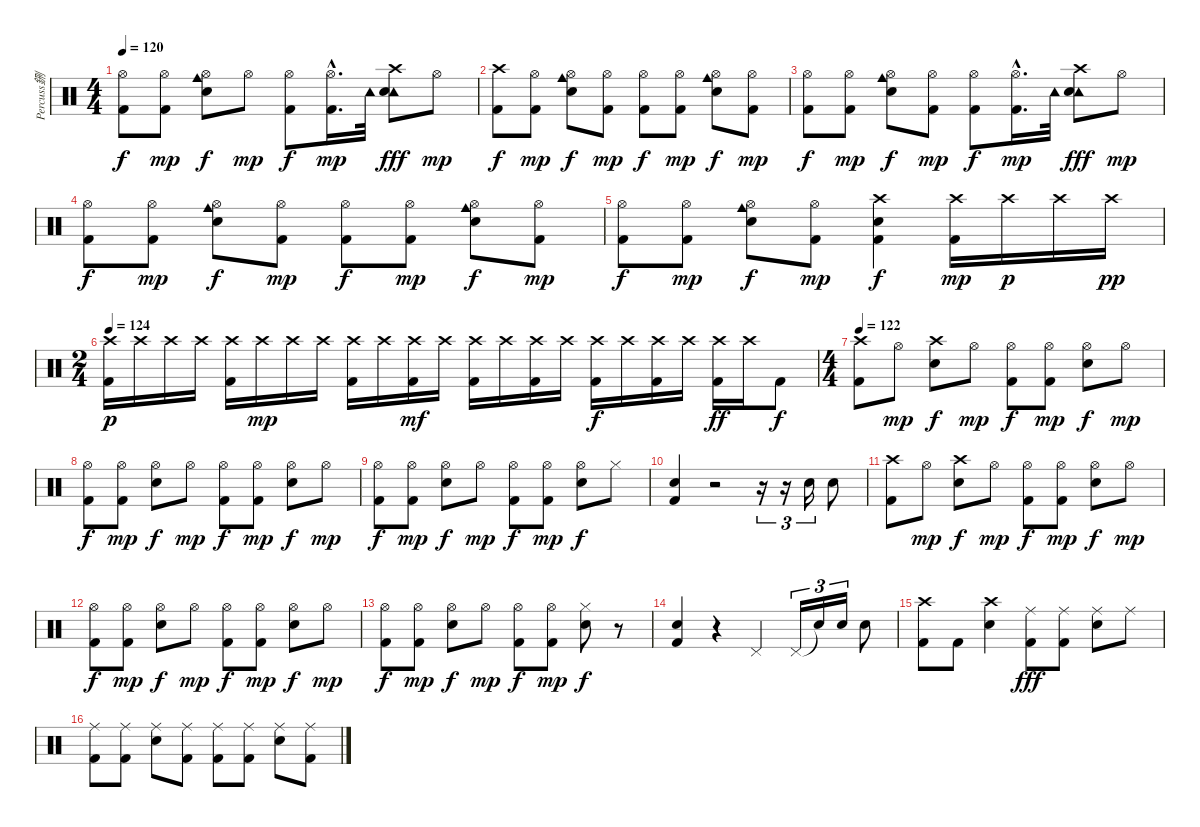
\track ("Percuss鉶" "Percuss鉶") {instrument percussion}
\staff {score}
\articulation defaults
\ts (4 4)
\tempo 120
\clef neutral
\ks c
("Hi-Hat (open)" "Kick (hit) 2").8{dy f} ("Hi-Hat (open)" "Kick (hit) 2").8{dy mp} ("Cowbell medium (hit)" "Hi-Hat (open)" "Snare (hit) 2").8{dy f} "Hi-Hat (open)".8{dy mp} ("Hi-Hat (open)" "Kick (hit) 2").8{dy f} ("Hi-Hat (open)"{hac} "Kick (hit) 2"{hac}).16{d dy mp} "Tambourine (hit)".32 ("Crash high (hit)" "Tambourine (hit)" "Snare (hit) 2").8{dy fff} "Hi-Hat (open)".8{dy mp} |
("Crash high (hit)" "Kick (hit) 2").8{dy f} ("Hi-Hat (open)" "Kick (hit) 2").8{dy mp} ("Cowbell medium (hit)" "Hi-Hat (open)" "Snare (hit) 2").8{dy f} ("Hi-Hat (open)" "Kick (hit) 2").8{dy mp} ("Hi-Hat (open)" "Kick (hit) 2").8{dy f} ("Hi-Hat (open)" "Kick (hit) 2").8{dy mp} ("Cowbell medium (hit)" "Hi-Hat (open)" "Snare (hit) 2").8{dy f} ("Hi-Hat (open)" "Kick (hit) 2").8{dy mp} |
("Hi-Hat (open)" "Kick (hit) 2").8{dy f} ("Hi-Hat (open)" "Kick (hit) 2").8{dy mp} ("Cowbell medium (hit)" "Hi-Hat (open)" "Snare (hit) 2").8{dy f} ("Hi-Hat (open)" "Kick (hit) 2").8{dy mp} ("Hi-Hat (open)" "Kick (hit) 2").8{dy f} ("Hi-Hat (open)"{hac} "Kick (hit) 2"{hac}).16{d dy mp} "Tambourine (hit)".32 ("Crash high (hit)" "Tambourine (hit)" "Snare (hit) 2").8{dy fff} "Hi-Hat (open)".8{dy mp} |
("Hi-Hat (open)" "Kick (hit) 2").8{dy f} ("Hi-Hat (open)" "Kick (hit) 2").8{dy mp} ("Cowbell medium (hit)" "Hi-Hat (open)" "Snare (hit) 2").8{dy f} ("Hi-Hat (open)" "Kick (hit) 2").8{dy mp} ("Hi-Hat (open)" "Kick (hit) 2").8{dy f} ("Hi-Hat (open)" "Kick (hit) 2").8{dy mp} ("Cowbell medium (hit)" "Hi-Hat (open)" "Snare (hit) 2").8{dy f} ("Hi-Hat (open)" "Kick (hit) 2").8{dy mp} |
("Hi-Hat (open)" "Kick (hit) 2").8{dy f} ("Hi-Hat (open)" "Kick (hit) 2").8{dy mp} ("Cowbell medium (hit)" "Hi-Hat (open)" "Snare (hit) 2").8{dy f} ("Hi-Hat (open)" "Kick (hit) 2").8{dy mp} ("Crash high (hit)" "Snare (hit) 2" "Kick (hit) 2").4{dy f} ("Crash high (hit)" "Kick (hit) 2").16{dy mp} "Crash high (hit)".16{dy p} "Crash high (hit)".16 "Crash high (hit)".16{dy pp} |
\ts (2 4)
\tempo 124
("Crash high (hit)" "Kick (hit) 2").16{dy p} "Crash high (hit)".16 "Crash high (hit)".16 "Crash high (hit)".16 ("Crash high (hit)" "Kick (hit) 2").16 "Crash high (hit)".16{dy mp} "Crash high (hit)".16 "Crash high (hit)".16 ("Crash high (hit)" "Kick (hit) 2").16 "Crash high (hit)".16 ("Crash high (hit)" "Kick (hit) 2").16{dy mf} "Crash high (hit)".16 ("Crash high (hit)" "Kick (hit) 2").16 "Crash high (hit)".16 ("Crash high (hit)" "Kick (hit) 2").16 "Crash high (hit)".16 ("Crash high (hit)" "Kick (hit) 2").16{dy f} "Crash high (hit)".16 ("Crash high (hit)" "Kick (hit) 2").16 "Crash high (hit)".16 ("Crash high (hit)" "Kick (hit) 2").16{dy ff} "Crash high (hit)".16 "Kick (hit) 2".8{dy f} |
\ts (4 4)
\tempo 122
("Crash high (hit)" "Kick (hit) 2").8 "Hi-Hat (open)".8{dy mp} ("Crash high (hit)" "Snare (hit) 2").8{dy f} "Hi-Hat (open)".8{dy mp} ("Hi-Hat (open)" "Kick (hit) 2").8{dy f} ("Hi-Hat (open)" "Kick (hit) 2").8{dy mp} ("Hi-Hat (open)" "Snare (hit) 2").8{dy f} "Hi-Hat (open)".8{dy mp} |
("Hi-Hat (open)" "Kick (hit) 2").8{dy f} ("Hi-Hat (open)" "Kick (hit) 2").8{dy mp} ("Hi-Hat (open)" "Snare (hit) 2").8{dy f} "Hi-Hat (open)".8{dy mp} ("Hi-Hat (open)" "Kick (hit) 2").8{dy f} ("Hi-Hat (open)" "Kick (hit) 2").8{dy mp} ("Hi-Hat (open)" "Snare (hit) 2").8{dy f} "Hi-Hat (open)".8{dy mp} |
("Hi-Hat (open)" "Kick (hit) 2").8{dy f} ("Hi-Hat (open)" "Kick (hit) 2").8{dy mp} ("Hi-Hat (open)" "Snare (hit) 2").8{dy f} "Hi-Hat (open)".8{dy mp} ("Hi-Hat (open)" "Kick (hit) 2").8{dy f} ("Hi-Hat (open)" "Kick (hit) 2").8{dy mp} ("Hi-Hat (open)" "Snare (hit) 2").8{dy f} "Hi-Hat (closed)".8 |
("Snare (hit) 2" "Kick (hit) 2").4 r.2 r.16{tu (3 2)} r.16{tu (3 2)} "Snare (hit) 2".16{tu (3 2)} "Snare (hit) 2".8 |
("Crash high (hit)" "Kick (hit) 2").8 "Hi-Hat (open)".8{dy mp} ("Crash high (hit)" "Snare (hit) 2").8{dy f} "Hi-Hat (open)".8{dy mp} ("Hi-Hat (open)" "Kick (hit) 2").8{dy f} ("Hi-Hat (open)" "Kick (hit) 2").8{dy mp} ("Hi-Hat (open)" "Snare (hit) 2").8{dy f} "Hi-Hat (open)".8{dy mp} |
("Hi-Hat (open)" "Kick (hit) 2").8{dy f} ("Hi-Hat (open)" "Kick (hit) 2").8{dy mp} ("Hi-Hat (open)" "Snare (hit) 2").8{dy f} "Hi-Hat (open)".8{dy mp} ("Hi-Hat (open)" "Kick (hit) 2").8{dy f} ("Hi-Hat (open)" "Kick (hit) 2").8{dy mp} ("Hi-Hat (open)" "Snare (hit) 2").8{dy f} "Hi-Hat (open)".8{dy mp} |
("Hi-Hat (open)" "Kick (hit) 2").8{dy f} ("Hi-Hat (open)" "Kick (hit) 2").8{dy mp} ("Hi-Hat (open)" "Snare (hit) 2").8{dy f} "Hi-Hat (open)".8{dy mp} ("Hi-Hat (open)" "Kick (hit) 2").8{dy f} ("Hi-Hat (open)" "Kick (hit) 2").8{dy mp} ("Hi-Hat (closed)" "Snare (hit) 2").8{dy f} r.8 |
("Snare (hit) 2" "Kick (hit) 2").4 r.4 "Pedal Hi-Hat (hit)".4 "Pedal Hi-Hat (hit)".16{tu (3 2)} "Snare (hit)"{t}.16{tu (3 2)} "Snare (hit) 2".16{tu (3 2)} "Snare (hit) 2".8 |
("Crash high (hit)" "Kick (hit) 2").8 "Kick (hit) 2".8 ("Crash high (hit)" "Snare (hit) 2").4 ("Ride (middle)" "Kick (hit) 2").8{dy fff} ("Ride (middle)" "Kick (hit) 2").8 ("Ride (middle)" "Snare (hit) 2").8 "Ride (middle)".8 |
("Ride (middle)" "Kick (hit) 2").8 ("Ride (middle)" "Kick (hit) 2").8 ("Ride (middle)" "Snare (hit) 2").8 ("Ride (middle)" "Kick (hit) 2").8 ("Ride (middle)" "Kick (hit) 2").8 ("Ride (middle)" "Kick (hit) 2").8 ("Ride (middle)" "Snare (hit) 2").8 ("Ride (middle)" "Kick (hit) 2").8
